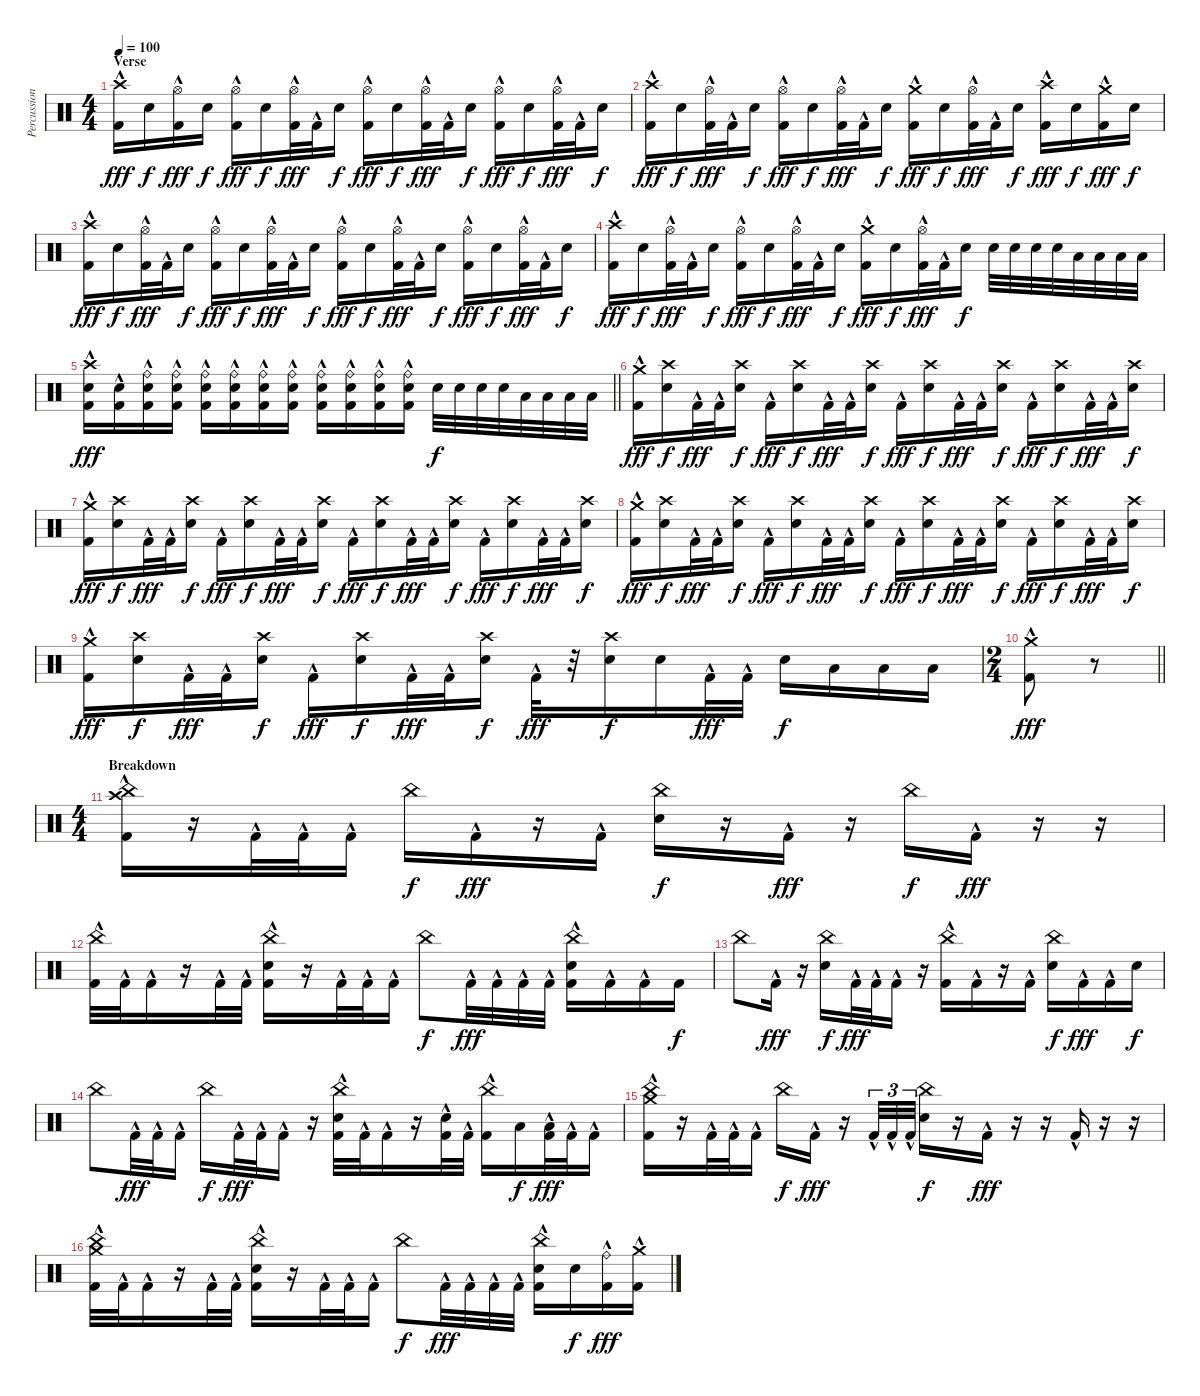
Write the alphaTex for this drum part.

\track ("Percussion" "Percussion") {instrument percussion}
\staff {score}
\articulation defaults
\ts (4 4)
\section ("" "Verse")
\tempo 100
\clef neutral
\ks c
("Crash high (hit)" "Kick (hit) 2"{hac}).16{dy fff} "Electric Snare (hit)".16{dy f} ("Hi-Hat (open)" "Kick (hit) 2"{hac}).16{dy fff} "Electric Snare (hit)".16{dy f} ("Hi-Hat (open)" "Kick (hit) 2"{hac}).16{dy fff} "Electric Snare (hit)".16{dy f} ("Hi-Hat (open)" "Kick (hit) 2"{hac}).32{dy fff} "Kick (hit) 2"{hac}.32 "Electric Snare (hit)".16{dy f} ("Hi-Hat (open)" "Kick (hit) 2"{hac}).16{dy fff} "Electric Snare (hit)".16{dy f} ("Hi-Hat (open)" "Kick (hit) 2"{hac}).32{dy fff} "Kick (hit) 2"{hac}.32 "Electric Snare (hit)".16{dy f} ("Hi-Hat (open)" "Kick (hit) 2"{hac}).16{dy fff} "Electric Snare (hit)".16{dy f} ("Hi-Hat (open)" "Kick (hit) 2"{hac}).32{dy fff} "Kick (hit) 2"{hac}.32 "Electric Snare (hit)".16{dy f} |
("Crash high (hit)" "Kick (hit) 2"{hac}).16{dy fff} "Electric Snare (hit)".16{dy f} ("Hi-Hat (open)" "Kick (hit) 2"{hac}).32{dy fff} "Kick (hit) 2"{hac}.32 "Electric Snare (hit)".16{dy f} ("Hi-Hat (open)" "Kick (hit) 2"{hac}).16{dy fff} "Electric Snare (hit)".16{dy f} ("Hi-Hat (open)" "Kick (hit) 2"{hac}).32{dy fff} "Kick (hit) 2"{hac}.32 "Electric Snare (hit)".16{dy f} ("Crash medium (hit)" "Kick (hit) 2"{hac}).16{dy fff} "Electric Snare (hit)".16{dy f} ("Hi-Hat (open)" "Kick (hit) 2"{hac}).32{dy fff} "Kick (hit) 2"{hac}.32 "Electric Snare (hit)".16{dy f} ("Crash high (hit)" "Kick (hit) 2"{hac}).16{dy fff} "Electric Snare (hit)".16{dy f} ("Crash medium (hit)" "Kick (hit) 2"{hac}).16{dy fff} "Electric Snare (hit)".16{dy f} |
("Crash high (hit)" "Kick (hit) 2"{hac}).16{dy fff} "Electric Snare (hit)".16{dy f} ("Hi-Hat (open)" "Kick (hit) 2"{hac}).32{dy fff} "Kick (hit) 2"{hac}.32 "Electric Snare (hit)".16{dy f} ("Hi-Hat (open)" "Kick (hit) 2"{hac}).16{dy fff} "Electric Snare (hit)".16{dy f} ("Hi-Hat (open)" "Kick (hit) 2"{hac}).32{dy fff} "Kick (hit) 2"{hac}.32 "Electric Snare (hit)".16{dy f} ("Hi-Hat (open)" "Kick (hit) 2"{hac}).16{dy fff} "Electric Snare (hit)".16{dy f} ("Hi-Hat (open)" "Kick (hit) 2"{hac}).32{dy fff} "Kick (hit) 2"{hac}.32 "Electric Snare (hit)".16{dy f} ("Hi-Hat (open)" "Kick (hit) 2"{hac}).16{dy fff} "Electric Snare (hit)".16{dy f} ("Hi-Hat (open)" "Kick (hit) 2"{hac}).32{dy fff} "Kick (hit) 2"{hac}.32 "Electric Snare (hit)".16{dy f} |
("Crash high (hit)" "Kick (hit) 2"{hac}).16{dy fff} "Electric Snare (hit)".16{dy f} ("Hi-Hat (open)" "Kick (hit) 2"{hac}).32{dy fff} "Kick (hit) 2"{hac}.32 "Electric Snare (hit)".16{dy f} ("Hi-Hat (open)" "Kick (hit) 2"{hac}).16{dy fff} "Electric Snare (hit)".16{dy f} ("Hi-Hat (open)" "Kick (hit) 2"{hac}).32{dy fff} "Kick (hit) 2"{hac}.32 "Electric Snare (hit)".16{dy f} ("Crash medium (hit)" "Kick (hit) 2"{hac}).16{dy fff} "Electric Snare (hit)".16{dy f} ("Hi-Hat (open)" "Kick (hit) 2"{hac}).32{dy fff} "Kick (hit) 2"{hac}.32 "Electric Snare (hit)".16{dy f} "Electric Snare (hit)".32 "Electric Snare (hit)".32 "Electric Snare (hit)".32 "Electric Snare (hit)".32 "Low Tom (hit)".32 "Low Tom (hit)".32 "Low Tom (hit)".32 "Low Tom (hit)".32 |
\barLineRight lightlight
("Crash high (hit)" "Electric Snare (hit)" "Kick (hit) 2"{hac}).16{dy fff} ("Electric Snare (hit)" "Kick (hit) 2"{hac}).16 ("Ride (bell)" "Electric Snare (hit)" "Kick (hit) 2"{hac}).16 ("Ride (bell)" "Electric Snare (hit)" "Kick (hit) 2"{hac}).16 ("Ride (bell)" "Electric Snare (hit)" "Kick (hit) 2"{hac}).16 ("Ride (bell)" "Electric Snare (hit)" "Kick (hit) 2"{hac}).16 ("Ride (bell)" "Electric Snare (hit)" "Kick (hit) 2"{hac}).16 ("Ride (bell)" "Electric Snare (hit)" "Kick (hit) 2"{hac}).16 ("Ride (bell)" "Electric Snare (hit)" "Kick (hit) 2"{hac}).16 ("Ride (bell)" "Electric Snare (hit)" "Kick (hit) 2"{hac}).16 ("Ride (bell)" "Electric Snare (hit)" "Kick (hit) 2"{hac}).16 ("Ride (bell)" "Electric Snare (hit)" "Kick (hit) 2"{hac}).16 "Electric Snare (hit)".32{dy f} "Electric Snare (hit)".32 "Electric Snare (hit)".32 "Electric Snare (hit)".32 "Low Tom (hit)".32 "Low Tom (hit)".32 "Low Tom (hit)".32 "Low Tom (hit)".32 |
("Crash medium (hit)" "Kick (hit) 2"{hac}).16{dy fff} ("Crash high (hit)" "Electric Snare (hit)").16{dy f} "Kick (hit) 2"{hac}.32{dy fff} "Kick (hit) 2"{hac}.32 ("Crash high (hit)" "Electric Snare (hit)").16{dy f} "Kick (hit) 2"{hac}.16{dy fff} ("Crash high (hit)" "Electric Snare (hit)").16{dy f} "Kick (hit) 2"{hac}.32{dy fff} "Kick (hit) 2"{hac}.32 ("Crash high (hit)" "Electric Snare (hit)").16{dy f} "Kick (hit) 2"{hac}.16{dy fff} ("Crash high (hit)" "Electric Snare (hit)").16{dy f} "Kick (hit) 2"{hac}.32{dy fff} "Kick (hit) 2"{hac}.32 ("Crash high (hit)" "Electric Snare (hit)").16{dy f} "Kick (hit) 2"{hac}.16{dy fff} ("Crash high (hit)" "Electric Snare (hit)").16{dy f} "Kick (hit) 2"{hac}.32{dy fff} "Kick (hit) 2"{hac}.32 ("Crash high (hit)" "Electric Snare (hit)").16{dy f} |
("Crash medium (hit)" "Kick (hit) 2"{hac}).16{dy fff} ("Crash high (hit)" "Electric Snare (hit)").16{dy f} "Kick (hit) 2"{hac}.32{dy fff} "Kick (hit) 2"{hac}.32 ("Crash high (hit)" "Electric Snare (hit)").16{dy f} "Kick (hit) 2"{hac}.16{dy fff} ("Crash high (hit)" "Electric Snare (hit)").16{dy f} "Kick (hit) 2"{hac}.32{dy fff} "Kick (hit) 2"{hac}.32 ("Crash high (hit)" "Electric Snare (hit)").16{dy f} "Kick (hit) 2"{hac}.16{dy fff} ("Crash high (hit)" "Electric Snare (hit)").16{dy f} "Kick (hit) 2"{hac}.32{dy fff} "Kick (hit) 2"{hac}.32 ("Crash high (hit)" "Electric Snare (hit)").16{dy f} "Kick (hit) 2"{hac}.16{dy fff} ("Crash high (hit)" "Electric Snare (hit)").16{dy f} "Kick (hit) 2"{hac}.32{dy fff} "Kick (hit) 2"{hac}.32 ("Crash high (hit)" "Electric Snare (hit)").16{dy f} |
("Crash medium (hit)" "Kick (hit) 2"{hac}).16{dy fff} ("Crash high (hit)" "Electric Snare (hit)").16{dy f} "Kick (hit) 2"{hac}.32{dy fff} "Kick (hit) 2"{hac}.32 ("Crash high (hit)" "Electric Snare (hit)").16{dy f} "Kick (hit) 2"{hac}.16{dy fff} ("Crash high (hit)" "Electric Snare (hit)").16{dy f} "Kick (hit) 2"{hac}.32{dy fff} "Kick (hit) 2"{hac}.32 ("Crash high (hit)" "Electric Snare (hit)").16{dy f} "Kick (hit) 2"{hac}.16{dy fff} ("Crash high (hit)" "Electric Snare (hit)").16{dy f} "Kick (hit) 2"{hac}.32{dy fff} "Kick (hit) 2"{hac}.32 ("Crash high (hit)" "Electric Snare (hit)").16{dy f} "Kick (hit) 2"{hac}.16{dy fff} ("Crash high (hit)" "Electric Snare (hit)").16{dy f} "Kick (hit) 2"{hac}.32{dy fff} "Kick (hit) 2"{hac}.32 ("Crash high (hit)" "Electric Snare (hit)").16{dy f} |
("Crash medium (hit)" "Kick (hit) 2"{hac}).16{dy fff} ("Crash high (hit)" "Electric Snare (hit)").16{dy f} "Kick (hit) 2"{hac}.32{dy fff} "Kick (hit) 2"{hac}.32 ("Crash high (hit)" "Electric Snare (hit)").16{dy f} "Kick (hit) 2"{hac}.16{dy fff} ("Crash high (hit)" "Electric Snare (hit)").16{dy f} "Kick (hit) 2"{hac}.32{dy fff} "Kick (hit) 2"{hac}.32 ("Crash high (hit)" "Electric Snare (hit)").16{dy f} "Kick (hit) 2"{hac}.32{dy fff} r.32 ("Crash high (hit)" "Electric Snare (hit)").16{dy f} "Electric Snare (hit)".16 "Kick (hit) 2"{hac}.32{dy fff} "Kick (hit) 2"{hac}.32 "Electric Snare (hit)".16{dy f} "Low Tom (hit)".16 "Low Tom (hit)".16 "Low Floor Tom (hit)".16 |
\ts (2 4)
\barLineRight lightlight
("Crash medium (hit)" "Kick (hit) 2"{hac}).8{dy fff} r.8{volume 0} |
\ts (4 4)
\section ("" "Breakdown")
("China (hit)" "Crash high (hit)" "Kick (hit) 2"{hac}).16{volume 13} r.16 "Kick (hit) 2"{hac}.32 "Kick (hit) 2"{hac}.32 "Kick (hit) 2"{hac}.16 "China (hit)".16{dy f} "Kick (hit) 2"{hac}.16{dy fff} r.16 "Kick (hit) 2"{hac}.16 ("China (hit)" "Electric Snare (hit)").16{dy f} r.16 "Kick (hit) 2"{hac}.16{dy fff} r.16 "China (hit)".16{dy f} "Kick (hit) 2"{hac}.16{dy fff} r.16 r.16 |
("China (hit)" "Kick (hit) 2"{hac}).32 "Kick (hit) 2"{hac}.32 "Kick (hit) 2"{hac}.16 r.16 "Kick (hit) 2"{hac}.32 "Kick (hit) 2"{hac}.32 ("Electric Snare (hit)" "China (hit)" "Kick (hit) 2"{hac}).16 r.16 "Kick (hit) 2"{hac}.32 "Kick (hit) 2"{hac}.32 "Kick (hit) 2"{hac}.16 "China (hit)".8{dy f} "Kick (hit) 2"{hac}.32{dy fff} "Kick (hit) 2"{hac}.32 "Kick (hit) 2"{hac}.32 "Kick (hit) 2"{hac}.32 ("Electric Snare (hit)" "China (hit)" "Kick (hit) 2"{hac}).16 "Kick (hit) 2"{hac}.16 "Kick (hit) 2"{hac}.16 "Kick (hit) 2".16{dy f} |
"China (hit)".8 "Kick (hit) 2"{hac}.16{dy fff} r.16 ("Electric Snare (hit)" "China (hit)").16{dy f} "Kick (hit) 2"{hac}.32{dy fff} "Kick (hit) 2"{hac}.32 "Kick (hit) 2"{hac}.16 r.16 ("China (hit)" "Kick (hit) 2"{hac}).16 "Kick (hit) 2"{hac}.16 r.16 "Kick (hit) 2"{hac}.16 ("Electric Snare (hit)" "China (hit)").16{dy f} "Kick (hit) 2"{hac}.16{dy fff} "Kick (hit) 2"{hac}.16 "Electric Snare (hit)".16{dy f} |
"China (hit)".8 "Kick (hit) 2"{hac}.32{dy fff} "Kick (hit) 2"{hac}.32 "Kick (hit) 2"{hac}.16 "China (hit)".16{dy f} "Kick (hit) 2"{hac}.32{dy fff} "Kick (hit) 2"{hac}.32 "Kick (hit) 2"{hac}.16 r.16 ("Electric Snare (hit)" "China (hit)" "Kick (hit) 2"{hac}).32 "Kick (hit) 2"{hac}.32 "Kick (hit) 2"{hac}.16 r.16 ("Electric Snare (hit)" "Kick (hit) 2"{hac}).32 "Kick (hit) 2"{hac}.32 ("China (hit)" "Kick (hit) 2"{hac}).16 "Low Tom (hit)".16{dy f} ("Low Floor Tom (hit)" "Kick (hit) 2"{hac}).32{dy fff} "Kick (hit) 2"{hac}.32 "Kick (hit) 2"{hac}.16 |
("China (hit)" "Crash medium (hit)" "Kick (hit) 2"{hac}).16 r.16 "Kick (hit) 2"{hac}.32 "Kick (hit) 2"{hac}.32 "Kick (hit) 2"{hac}.16 "China (hit)".16{dy f} "Kick (hit) 2"{hac}.16{dy fff} r.16 "Kick (hit) 2"{hac}.32{tu (3 2)} "Kick (hit) 2"{hac}.32{tu (3 2)} "Kick (hit) 2"{hac}.32{tu (3 2)} ("China (hit)" "Electric Snare (hit)").16{dy f} r.16 "Kick (hit) 2"{hac}.16{dy fff} r.16 r.16 "Kick (hit) 2"{hac}.16 r.16 r.16 |
("China (hit)" "Crash medium (hit)" "Kick (hit) 2"{hac}).32 "Kick (hit) 2"{hac}.32 "Kick (hit) 2"{hac}.16 r.16 "Kick (hit) 2"{hac}.32 "Kick (hit) 2"{hac}.32 ("Electric Snare (hit)" "China (hit)" "Kick (hit) 2"{hac}).16 r.16 "Kick (hit) 2"{hac}.32 "Kick (hit) 2"{hac}.32 "Kick (hit) 2"{hac}.16 "China (hit)".8{dy f} "Kick (hit) 2"{hac}.32{dy fff} "Kick (hit) 2"{hac}.32 "Kick (hit) 2"{hac}.32 "Kick (hit) 2"{hac}.32 ("Electric Snare (hit)" "China (hit)" "Kick (hit) 2"{hac}).16 "Electric Snare (hit)".16{dy f} ("Ride (bell)"{hac} "Kick (hit) 2"{hac}).16{dy fff} ("Crash medium (hit)" "Kick (hit) 2"{hac}).16
